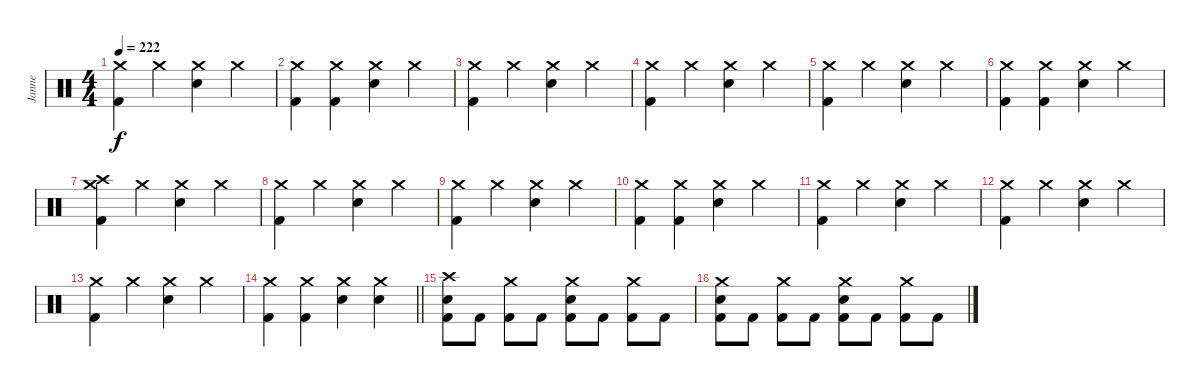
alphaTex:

\track ("Janne" "Janne") {instrument percussion}
\staff {score}
\articulation defaults
\ts (4 4)
\tempo 222
\clef neutral
\ks c
("Crash medium (hit)" "Kick (hit) 2").4{dy f} "Crash medium (hit)".4 ("Crash medium (hit)" "Electric Snare (hit)").4 "Crash medium (hit)".4 |
("Crash medium (hit)" "Kick (hit) 2").4 ("Crash medium (hit)" "Kick (hit) 2").4 ("Crash medium (hit)" "Electric Snare (hit)").4 "Crash medium (hit)".4 |
("Crash medium (hit)" "Kick (hit) 2").4 "Crash medium (hit)".4 ("Crash medium (hit)" "Electric Snare (hit)").4 "Crash medium (hit)".4 |
("Crash medium (hit)" "Kick (hit) 2").4 "Crash medium (hit)".4 ("Crash medium (hit)" "Electric Snare (hit)").4 "Crash medium (hit)".4 |
("Crash medium (hit)" "Kick (hit) 2").4 "Crash medium (hit)".4 ("Crash medium (hit)" "Electric Snare (hit)").4 "Crash medium (hit)".4 |
("Crash medium (hit)" "Kick (hit) 2").4 ("Crash medium (hit)" "Kick (hit) 2").4 ("Crash medium (hit)" "Electric Snare (hit)").4 "Crash medium (hit)".4 |
("Crash medium (hit)" "Crash high (hit)" "Kick (hit) 2").4 "Crash medium (hit)".4 ("Crash medium (hit)" "Electric Snare (hit)").4 "Crash medium (hit)".4 |
("Crash medium (hit)" "Kick (hit) 2").4 "Crash medium (hit)".4 ("Crash medium (hit)" "Electric Snare (hit)").4 "Crash medium (hit)".4 |
("Crash medium (hit)" "Kick (hit) 2").4 "Crash medium (hit)".4 ("Crash medium (hit)" "Electric Snare (hit)").4 "Crash medium (hit)".4 |
("Crash medium (hit)" "Kick (hit) 2").4 ("Crash medium (hit)" "Kick (hit) 2").4 ("Crash medium (hit)" "Electric Snare (hit)").4 "Crash medium (hit)".4 |
("Crash medium (hit)" "Kick (hit) 2").4 "Crash medium (hit)".4 ("Crash medium (hit)" "Electric Snare (hit)").4 "Crash medium (hit)".4 |
("Crash medium (hit)" "Kick (hit) 2").4 "Crash medium (hit)".4 ("Crash medium (hit)" "Electric Snare (hit)").4 "Crash medium (hit)".4 |
("Crash medium (hit)" "Kick (hit) 2").4 "Crash medium (hit)".4 ("Crash medium (hit)" "Electric Snare (hit)").4 "Crash medium (hit)".4 |
\barLineRight lightlight
("Crash medium (hit)" "Kick (hit) 2").4 ("Crash medium (hit)" "Kick (hit) 2").4 ("Crash medium (hit)" "Electric Snare (hit)").4 ("Crash medium (hit)" "Electric Snare (hit)").4 |
\section ("" "")
("Crash high (hit)" "Electric Snare (hit)" "Kick (hit) 2").8 "Kick (hit) 2".8 ("Crash medium (hit)" "Kick (hit) 2").8 "Kick (hit) 2".8 ("Crash medium (hit)" "Electric Snare (hit)" "Kick (hit) 2").8 "Kick (hit) 2".8 ("Crash medium (hit)" "Kick (hit) 2").8 "Kick (hit) 2".8 |
("Crash medium (hit)" "Electric Snare (hit)" "Kick (hit) 2").8 "Kick (hit) 2".8 ("Crash medium (hit)" "Kick (hit) 2").8 "Kick (hit) 2".8 ("Crash medium (hit)" "Electric Snare (hit)" "Kick (hit) 2").8 "Kick (hit) 2".8 ("Crash medium (hit)" "Kick (hit) 2").8 "Kick (hit) 2".8
